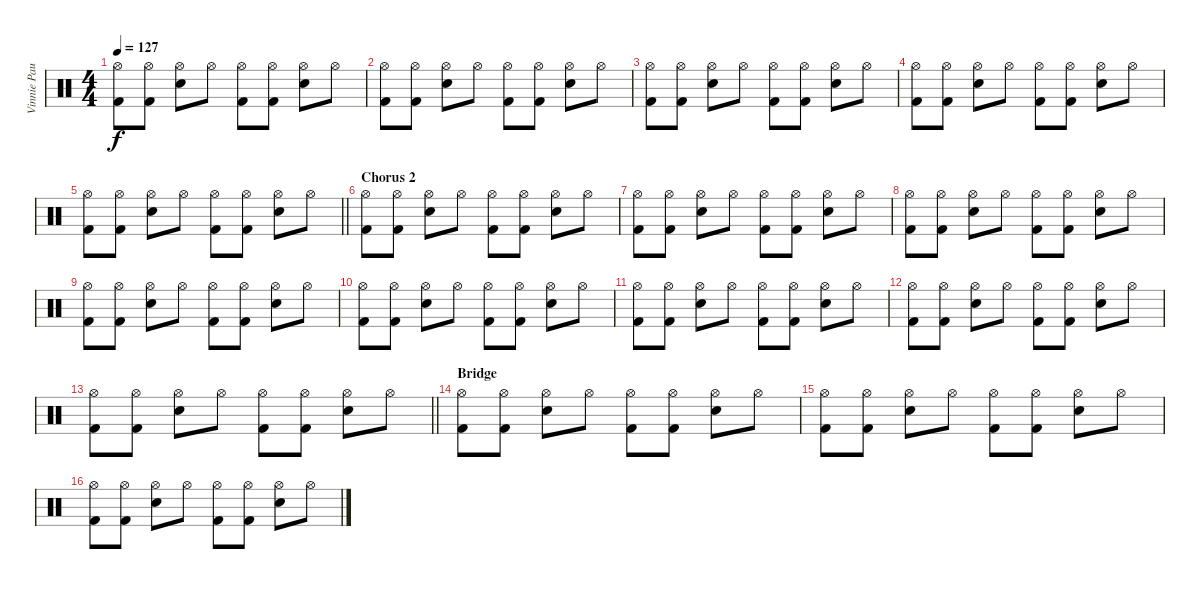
\track ("Vinnie Paul" "Vinnie Pau") {instrument percussion}
\staff {score}
\articulation defaults
\ts (4 4)
\tempo 127
\clef neutral
\ks c
("Kick (hit) 2" "Hi-Hat (open)").8{dy f} ("Kick (hit) 2" "Hi-Hat (open)").8 ("Snare (hit) 2" "Hi-Hat (open)").8 "Hi-Hat (open)".8 ("Kick (hit) 2" "Hi-Hat (open)").8 ("Kick (hit) 2" "Hi-Hat (open)").8 ("Snare (hit) 2" "Hi-Hat (open)").8 "Hi-Hat (open)".8 |
("Kick (hit) 2" "Hi-Hat (open)").8 ("Kick (hit) 2" "Hi-Hat (open)").8 ("Snare (hit) 2" "Hi-Hat (open)").8 "Hi-Hat (open)".8 ("Kick (hit) 2" "Hi-Hat (open)").8 ("Kick (hit) 2" "Hi-Hat (open)").8 ("Snare (hit) 2" "Hi-Hat (open)").8 "Hi-Hat (open)".8 |
("Kick (hit) 2" "Hi-Hat (open)").8 ("Kick (hit) 2" "Hi-Hat (open)").8 ("Snare (hit) 2" "Hi-Hat (open)").8 "Hi-Hat (open)".8 ("Kick (hit) 2" "Hi-Hat (open)").8 ("Kick (hit) 2" "Hi-Hat (open)").8 ("Snare (hit) 2" "Hi-Hat (open)").8 "Hi-Hat (open)".8 |
("Kick (hit) 2" "Hi-Hat (open)").8 ("Kick (hit) 2" "Hi-Hat (open)").8 ("Snare (hit) 2" "Hi-Hat (open)").8 "Hi-Hat (open)".8 ("Kick (hit) 2" "Hi-Hat (open)").8 ("Kick (hit) 2" "Hi-Hat (open)").8 ("Snare (hit) 2" "Hi-Hat (open)").8 "Hi-Hat (open)".8 |
\barLineRight lightlight
("Kick (hit) 2" "Hi-Hat (open)").8 ("Kick (hit) 2" "Hi-Hat (open)").8 ("Snare (hit) 2" "Hi-Hat (open)").8 "Hi-Hat (open)".8 ("Kick (hit) 2" "Hi-Hat (open)").8 ("Kick (hit) 2" "Hi-Hat (open)").8 ("Snare (hit) 2" "Hi-Hat (open)").8 "Hi-Hat (open)".8 |
\section ("" "Chorus 2")
("Kick (hit) 2" "Hi-Hat (open)").8 ("Kick (hit) 2" "Hi-Hat (open)").8 ("Snare (hit) 2" "Hi-Hat (open)").8 "Hi-Hat (open)".8 ("Kick (hit) 2" "Hi-Hat (open)").8 ("Kick (hit) 2" "Hi-Hat (open)").8 ("Snare (hit) 2" "Hi-Hat (open)").8 "Hi-Hat (open)".8 |
("Kick (hit) 2" "Hi-Hat (open)").8 ("Kick (hit) 2" "Hi-Hat (open)").8 ("Snare (hit) 2" "Hi-Hat (open)").8 "Hi-Hat (open)".8 ("Kick (hit) 2" "Hi-Hat (open)").8 ("Kick (hit) 2" "Hi-Hat (open)").8 ("Snare (hit) 2" "Hi-Hat (open)").8 "Hi-Hat (open)".8 |
("Kick (hit) 2" "Hi-Hat (open)").8 ("Kick (hit) 2" "Hi-Hat (open)").8 ("Snare (hit) 2" "Hi-Hat (open)").8 "Hi-Hat (open)".8 ("Kick (hit) 2" "Hi-Hat (open)").8 ("Kick (hit) 2" "Hi-Hat (open)").8 ("Snare (hit) 2" "Hi-Hat (open)").8 "Hi-Hat (open)".8 |
("Kick (hit) 2" "Hi-Hat (open)").8 ("Kick (hit) 2" "Hi-Hat (open)").8 ("Snare (hit) 2" "Hi-Hat (open)").8 "Hi-Hat (open)".8 ("Kick (hit) 2" "Hi-Hat (open)").8 ("Kick (hit) 2" "Hi-Hat (open)").8 ("Snare (hit) 2" "Hi-Hat (open)").8 "Hi-Hat (open)".8 |
("Kick (hit) 2" "Hi-Hat (open)").8 ("Kick (hit) 2" "Hi-Hat (open)").8 ("Snare (hit) 2" "Hi-Hat (open)").8 "Hi-Hat (open)".8 ("Kick (hit) 2" "Hi-Hat (open)").8 ("Kick (hit) 2" "Hi-Hat (open)").8 ("Snare (hit) 2" "Hi-Hat (open)").8 "Hi-Hat (open)".8 |
("Kick (hit) 2" "Hi-Hat (open)").8 ("Kick (hit) 2" "Hi-Hat (open)").8 ("Snare (hit) 2" "Hi-Hat (open)").8 "Hi-Hat (open)".8 ("Kick (hit) 2" "Hi-Hat (open)").8 ("Kick (hit) 2" "Hi-Hat (open)").8 ("Snare (hit) 2" "Hi-Hat (open)").8 "Hi-Hat (open)".8 |
("Kick (hit) 2" "Hi-Hat (open)").8 ("Kick (hit) 2" "Hi-Hat (open)").8 ("Snare (hit) 2" "Hi-Hat (open)").8 "Hi-Hat (open)".8 ("Kick (hit) 2" "Hi-Hat (open)").8 ("Kick (hit) 2" "Hi-Hat (open)").8 ("Snare (hit) 2" "Hi-Hat (open)").8 "Hi-Hat (open)".8 |
\barLineRight lightlight
("Kick (hit) 2" "Hi-Hat (open)").8 ("Kick (hit) 2" "Hi-Hat (open)").8 ("Snare (hit) 2" "Hi-Hat (open)").8 "Hi-Hat (open)".8 ("Kick (hit) 2" "Hi-Hat (open)").8 ("Kick (hit) 2" "Hi-Hat (open)").8 ("Snare (hit) 2" "Hi-Hat (open)").8 "Hi-Hat (open)".8 |
\section ("" "Bridge")
("Kick (hit) 2" "Hi-Hat (open)").8 ("Kick (hit) 2" "Hi-Hat (open)").8 ("Snare (hit) 2" "Hi-Hat (open)").8 "Hi-Hat (open)".8 ("Kick (hit) 2" "Hi-Hat (open)").8 ("Kick (hit) 2" "Hi-Hat (open)").8 ("Snare (hit) 2" "Hi-Hat (open)").8 "Hi-Hat (open)".8 |
("Kick (hit) 2" "Hi-Hat (open)").8 ("Kick (hit) 2" "Hi-Hat (open)").8 ("Snare (hit) 2" "Hi-Hat (open)").8 "Hi-Hat (open)".8 ("Kick (hit) 2" "Hi-Hat (open)").8 ("Kick (hit) 2" "Hi-Hat (open)").8 ("Snare (hit) 2" "Hi-Hat (open)").8 "Hi-Hat (open)".8 |
("Kick (hit) 2" "Hi-Hat (open)").8 ("Kick (hit) 2" "Hi-Hat (open)").8 ("Snare (hit) 2" "Hi-Hat (open)").8 "Hi-Hat (open)".8 ("Kick (hit) 2" "Hi-Hat (open)").8 ("Kick (hit) 2" "Hi-Hat (open)").8 ("Snare (hit) 2" "Hi-Hat (open)").8 "Hi-Hat (open)".8
